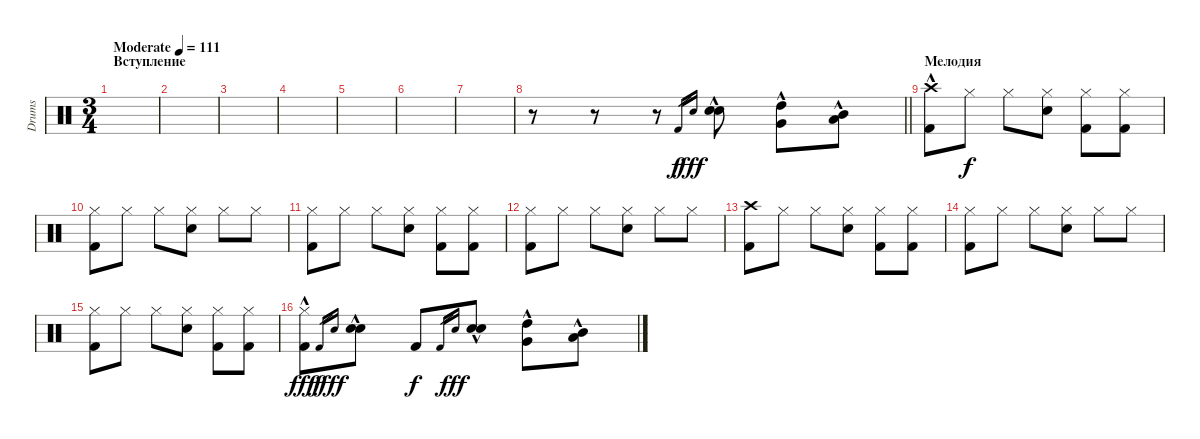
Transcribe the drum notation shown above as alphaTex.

\track ("Drums" "Drums") {instrument percussion}
\staff {score}
\articulation defaults
\ts (3 4)
\section ("" "Вступление")
\tempo (111 "Moderate")
\clef neutral
\ks c
|
|
|
|
|
|
|
\barLineRight lightlight
r.8 r.8 r.8 "Kick (hit) 2".16{gr} "Snare (hit) 2".16{gr dy fff} ("Snare (hit) 2"{hac} "Electric Snare (hit)"{hac}).8 ("High Tom (hit)"{hac} "Very Low Tom (hit)"{hac}).8 ("Mid Tom (hit)"{hac} "Low Floor Tom (hit)"{hac}).8 |
\section ("" "Мелодия")
("Crash high (hit)"{hac} "Kick (hit) 2"{hac}).8 "Hi-Hat (closed)".8{dy f} "Hi-Hat (closed)".8 ("Hi-Hat (closed)" "Snare (hit) 2").8 ("Hi-Hat (closed)" "Kick (hit) 2").8 ("Hi-Hat (closed)" "Kick (hit) 2").8 |
("Hi-Hat (closed)" "Kick (hit) 2").8 "Hi-Hat (closed)".8 "Hi-Hat (closed)".8 ("Hi-Hat (closed)" "Snare (hit) 2").8 "Hi-Hat (closed)".8 "Hi-Hat (closed)".8 |
("Hi-Hat (closed)" "Kick (hit) 2").8 "Hi-Hat (closed)".8 "Hi-Hat (closed)".8 ("Hi-Hat (closed)" "Snare (hit) 2").8 ("Hi-Hat (closed)" "Kick (hit) 2").8 ("Hi-Hat (closed)" "Kick (hit) 2").8 |
("Hi-Hat (closed)" "Kick (hit) 2").8 "Hi-Hat (closed)".8 "Hi-Hat (closed)".8 ("Hi-Hat (closed)" "Snare (hit) 2").8 "Hi-Hat (closed)".8 "Hi-Hat (closed)".8 |
("Crash high (hit)" "Kick (hit) 2").8 "Hi-Hat (closed)".8 "Hi-Hat (closed)".8 ("Hi-Hat (closed)" "Snare (hit) 2").8 ("Hi-Hat (closed)" "Kick (hit) 2").8 ("Hi-Hat (closed)" "Kick (hit) 2").8 |
("Hi-Hat (closed)" "Kick (hit) 2").8 "Hi-Hat (closed)".8 "Hi-Hat (closed)".8 ("Hi-Hat (closed)" "Snare (hit) 2").8 "Hi-Hat (closed)".8 "Hi-Hat (closed)".8 |
("Hi-Hat (closed)" "Kick (hit) 2").8 "Hi-Hat (closed)".8 "Hi-Hat (closed)".8 ("Hi-Hat (closed)" "Snare (hit) 2").8 ("Hi-Hat (closed)" "Kick (hit) 2").8 ("Hi-Hat (closed)" "Kick (hit) 2").8 |
("Hi-Hat (closed)" "Kick (hit) 2"{hac}).8{dy fff} "Kick (hit) 2".16{gr dy f} "Snare (hit) 2".16{gr dy fff} ("Snare (hit) 2"{hac} "Electric Snare (hit)"{hac}).8 "Kick (hit) 2".8{dy f} "Kick (hit) 2".16{gr} "Snare (hit) 2".16{gr dy fff} ("Snare (hit) 2"{hac} "Electric Snare (hit)"{hac}).8 ("High Tom (hit)"{hac} "Very Low Tom (hit)"{hac}).8 ("Mid Tom (hit)"{hac} "Low Floor Tom (hit)"{hac}).8
